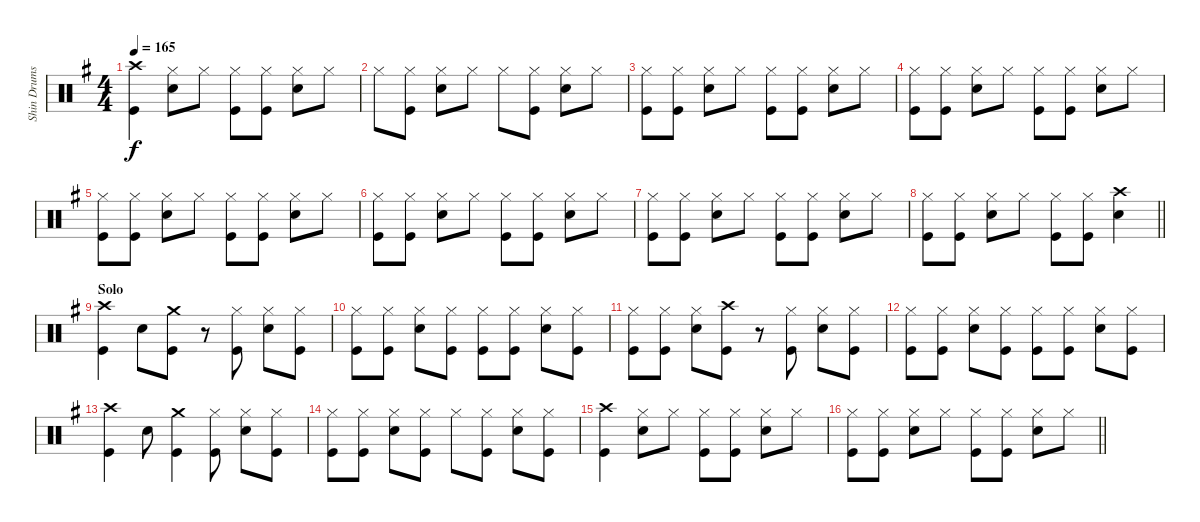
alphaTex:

\track ("Shin Drums" "Shin Drums") {instrument percussion}
\staff {score}
\articulation defaults
\ts (4 4)
\tempo 165
\clef neutral
\ks g
("Crash high (hit)" "Kick (hit)").4{dy f} ("Hi-Hat (closed)" "Snare (hit) 2").8 "Hi-Hat (closed)".8 ("Hi-Hat (closed)" "Kick (hit)").8 ("Hi-Hat (closed)" "Kick (hit)").8 ("Hi-Hat (closed)" "Snare (hit) 2").8 "Hi-Hat (closed)".8 |
"Hi-Hat (closed)".8 ("Hi-Hat (closed)" "Kick (hit)").8 ("Hi-Hat (closed)" "Snare (hit) 2").8 "Hi-Hat (closed)".8 "Hi-Hat (closed)".8 ("Hi-Hat (closed)" "Kick (hit)").8 ("Hi-Hat (closed)" "Snare (hit) 2").8 "Hi-Hat (closed)".8 |
("Hi-Hat (closed)" "Kick (hit)").8 ("Hi-Hat (closed)" "Kick (hit)").8 ("Hi-Hat (closed)" "Snare (hit) 2").8 "Hi-Hat (closed)".8 ("Hi-Hat (closed)" "Kick (hit)").8 ("Hi-Hat (closed)" "Kick (hit)").8 ("Hi-Hat (closed)" "Snare (hit) 2").8 "Hi-Hat (closed)".8 |
("Hi-Hat (closed)" "Kick (hit)").8 ("Hi-Hat (closed)" "Kick (hit)").8 ("Hi-Hat (closed)" "Snare (hit) 2").8 "Hi-Hat (closed)".8 ("Hi-Hat (closed)" "Kick (hit)").8 ("Hi-Hat (closed)" "Kick (hit)").8 ("Hi-Hat (closed)" "Snare (hit) 2").8 "Hi-Hat (closed)".8 |
("Hi-Hat (closed)" "Kick (hit)").8 ("Hi-Hat (closed)" "Kick (hit)").8 ("Hi-Hat (closed)" "Snare (hit) 2").8 "Hi-Hat (closed)".8 ("Hi-Hat (closed)" "Kick (hit)").8 ("Hi-Hat (closed)" "Kick (hit)").8 ("Hi-Hat (closed)" "Snare (hit) 2").8 "Hi-Hat (closed)".8 |
("Hi-Hat (closed)" "Kick (hit)").8 ("Hi-Hat (closed)" "Kick (hit)").8 ("Hi-Hat (closed)" "Snare (hit) 2").8 "Hi-Hat (closed)".8 ("Hi-Hat (closed)" "Kick (hit)").8 ("Hi-Hat (closed)" "Kick (hit)").8 ("Hi-Hat (closed)" "Snare (hit) 2").8 "Hi-Hat (closed)".8 |
("Hi-Hat (closed)" "Kick (hit)").8 ("Hi-Hat (closed)" "Kick (hit)").8 ("Hi-Hat (closed)" "Snare (hit) 2").8 "Hi-Hat (closed)".8 ("Hi-Hat (closed)" "Kick (hit)").8 ("Hi-Hat (closed)" "Kick (hit)").8 ("Hi-Hat (closed)" "Snare (hit) 2").8 "Hi-Hat (closed)".8 |
\barLineRight lightlight
("Hi-Hat (closed)" "Kick (hit)").8 ("Hi-Hat (closed)" "Kick (hit)").8 ("Hi-Hat (closed)" "Snare (hit) 2").8 "Hi-Hat (closed)".8 ("Hi-Hat (closed)" "Kick (hit)").8 ("Hi-Hat (closed)" "Kick (hit)").8 ("Crash high (hit)" "Snare (hit) 2").4 |
\section ("" "Solo")
("Crash high (hit)" "Kick (hit)").4 "Snare (hit) 2".8 ("Crash medium (hit)" "Kick (hit)").8 r.8 ("Hi-Hat (closed)" "Kick (hit)").8 ("Hi-Hat (closed)" "Snare (hit) 2").8 ("Hi-Hat (closed)" "Kick (hit)").8 |
("Hi-Hat (closed)" "Kick (hit)").8 ("Hi-Hat (closed)" "Kick (hit)").8 ("Hi-Hat (closed)" "Snare (hit) 2").8 ("Hi-Hat (closed)" "Kick (hit)").8 ("Hi-Hat (closed)" "Kick (hit)").8 ("Hi-Hat (closed)" "Kick (hit)").8 ("Hi-Hat (closed)" "Snare (hit) 2").8 ("Hi-Hat (closed)" "Kick (hit)").8 |
("Hi-Hat (closed)" "Kick (hit)").8 ("Hi-Hat (closed)" "Kick (hit)").8 ("Hi-Hat (closed)" "Snare (hit) 2").8 ("Crash high (hit)" "Kick (hit)").8 r.8 ("Hi-Hat (closed)" "Kick (hit)").8 ("Hi-Hat (closed)" "Snare (hit) 2").8 ("Hi-Hat (closed)" "Kick (hit)").8 |
("Hi-Hat (closed)" "Kick (hit)").8 ("Hi-Hat (closed)" "Kick (hit)").8 ("Hi-Hat (closed)" "Snare (hit) 2").8 ("Hi-Hat (closed)" "Kick (hit)").8 ("Hi-Hat (closed)" "Kick (hit)").8 ("Hi-Hat (closed)" "Kick (hit)").8 ("Hi-Hat (closed)" "Snare (hit) 2").8 ("Hi-Hat (closed)" "Kick (hit)").8 |
("Crash high (hit)" "Kick (hit)").4 "Snare (hit) 2".8 ("Crash medium (hit)" "Kick (hit)").4 ("Hi-Hat (closed)" "Kick (hit)").8 ("Hi-Hat (closed)" "Snare (hit) 2").8 ("Hi-Hat (closed)" "Kick (hit)").8 |
("Hi-Hat (closed)" "Kick (hit)").8 ("Hi-Hat (closed)" "Kick (hit)").8 ("Hi-Hat (closed)" "Snare (hit) 2").8 ("Hi-Hat (closed)" "Kick (hit)").8 "Hi-Hat (closed)".8 ("Hi-Hat (closed)" "Kick (hit)").8 ("Hi-Hat (closed)" "Snare (hit) 2").8 ("Hi-Hat (closed)" "Kick (hit)").8 |
("Crash high (hit)" "Kick (hit)").4 ("Hi-Hat (closed)" "Snare (hit) 2").8 "Hi-Hat (closed)".8 ("Hi-Hat (closed)" "Kick (hit)").8 ("Hi-Hat (closed)" "Kick (hit)").8 ("Hi-Hat (closed)" "Snare (hit) 2").8 "Hi-Hat (closed)".8 |
\barLineRight lightlight
("Hi-Hat (closed)" "Kick (hit)").8 ("Hi-Hat (closed)" "Kick (hit)").8 ("Hi-Hat (closed)" "Snare (hit) 2").8 "Hi-Hat (closed)".8 ("Hi-Hat (closed)" "Kick (hit)").8 ("Hi-Hat (closed)" "Kick (hit)").8 ("Hi-Hat (closed)" "Snare (hit) 2").8 "Hi-Hat (closed)".8
